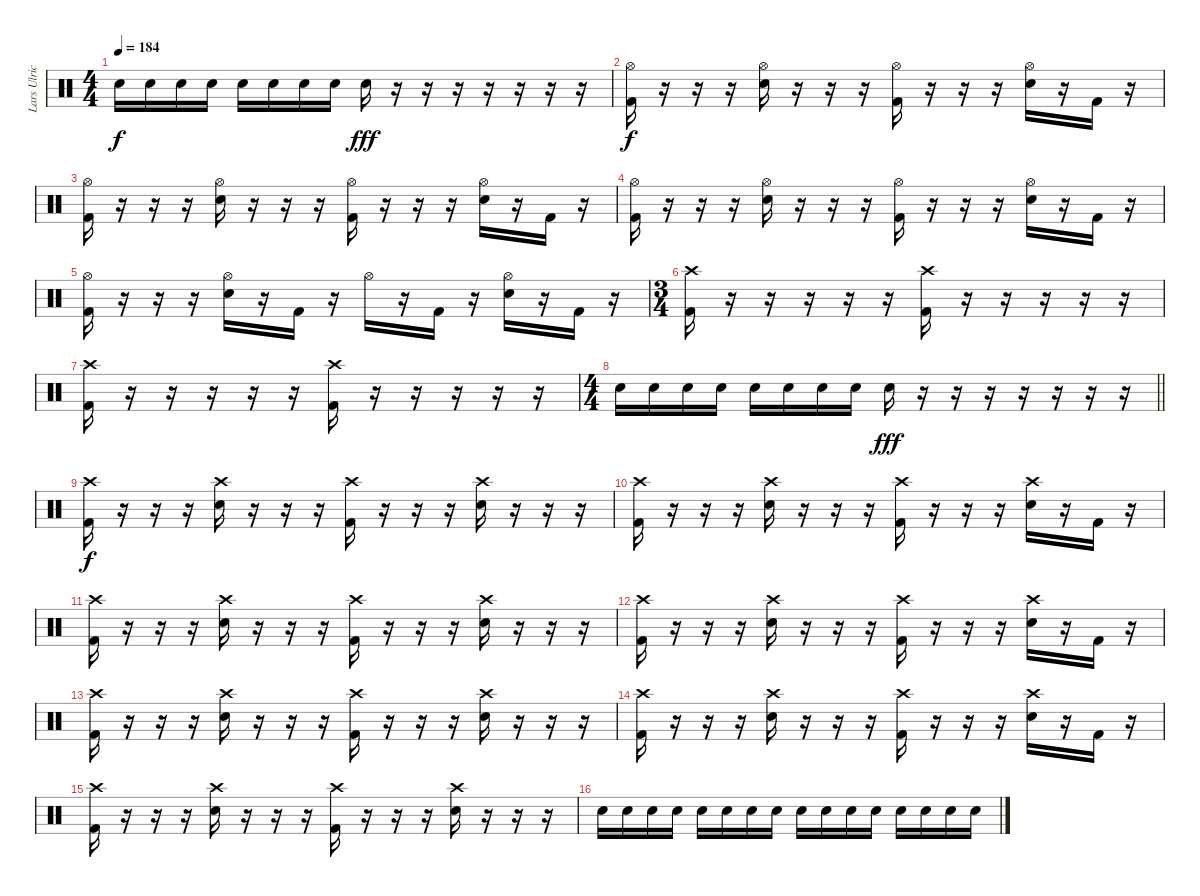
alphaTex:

\track ("Lars Ulrich" "Lars Ulric") {instrument percussion}
\staff {score}
\articulation defaults
\ts (4 4)
\tempo 184
\clef neutral
\ks c "Electric Snare (hit)".16{dy f} "Electric Snare (hit)".16 "Electric Snare (hit)".16 "Electric Snare (hit)".16 "Electric Snare (hit)".16 "Electric Snare (hit)".16 "Electric Snare (hit)".16 "Electric Snare (hit)".16 "Electric Snare (hit)".16{dy fff}
r.16 r.16 r.16 r.16 r.16 r.16 r.16 |
("Hi-Hat (open)" "Kick (hit) 2").16{dy f} r.16 r.16 r.16 ("Electric Snare (hit)" "Hi-Hat (open)").16 r.16 r.16 r.16 ("Hi-Hat (open)" "Kick (hit) 2").16 r.16 r.16 r.16 ("Electric Snare (hit)" "Hi-Hat (open)").16 r.16 "Kick (hit) 2".16 r.16 |
("Hi-Hat (open)" "Kick (hit) 2").16 r.16 r.16 r.16 ("Electric Snare (hit)" "Hi-Hat (open)").16 r.16 r.16 r.16 ("Hi-Hat (open)" "Kick (hit) 2").16 r.16 r.16 r.16 ("Electric Snare (hit)" "Hi-Hat (open)").16 r.16 "Kick (hit) 2".16 r.16 |
("Hi-Hat (open)" "Kick (hit) 2").16 r.16 r.16 r.16 ("Electric Snare (hit)" "Hi-Hat (open)").16 r.16 r.16 r.16 ("Hi-Hat (open)" "Kick (hit) 2").16 r.16 r.16 r.16 ("Electric Snare (hit)" "Hi-Hat (open)").16 r.16 "Kick (hit) 2".16 r.16 |
("Hi-Hat (open)" "Kick (hit) 2").16 r.16 r.16 r.16 ("Electric Snare (hit)" "Hi-Hat (open)").16 r.16 "Kick (hit) 2".16 r.16 "Hi-Hat (open)".16 r.16 "Kick (hit) 2".16 r.16 ("Electric Snare (hit)" "Hi-Hat (open)").16 r.16 "Kick (hit) 2".16 r.16 |
\ts (3 4)
("Crash high (hit)" "Kick (hit) 2").16 r.16 r.16 r.16 r.16 r.16 ("Crash high (hit)" "Kick (hit) 2").16 r.16 r.16 r.16 r.16 r.16 |
("Crash high (hit)" "Kick (hit) 2").16 r.16 r.16 r.16 r.16 r.16 ("Crash high (hit)" "Kick (hit) 2").16 r.16 r.16 r.16 r.16 r.16 |
\ts (4 4)
\barLineRight lightlight "Electric Snare (hit)".16 "Electric Snare (hit)".16 "Electric Snare (hit)".16 "Electric Snare (hit)".16 "Electric Snare (hit)".16 "Electric Snare (hit)".16 "Electric Snare (hit)".16 "Electric Snare (hit)".16 "Electric Snare (hit)".16{dy fff}
r.16 r.16 r.16 r.16 r.16 r.16 r.16 |
("Crash high (hit)" "Kick (hit) 2").16{dy f} r.16 r.16 r.16 ("Crash high (hit)" "Electric Snare (hit)").16 r.16 r.16 r.16 ("Crash high (hit)" "Kick (hit) 2").16 r.16 r.16 r.16 ("Crash high (hit)" "Electric Snare (hit)").16 r.16 r.16 r.16 |
("Crash high (hit)" "Kick (hit) 2").16 r.16 r.16 r.16 ("Crash high (hit)" "Electric Snare (hit)").16 r.16 r.16 r.16 ("Crash high (hit)" "Kick (hit) 2").16 r.16 r.16 r.16 ("Crash high (hit)" "Electric Snare (hit)").16 r.16 "Kick (hit) 2".16 r.16 |
("Crash high (hit)" "Kick (hit) 2").16 r.16 r.16 r.16 ("Crash high (hit)" "Electric Snare (hit)").16 r.16 r.16 r.16 ("Crash high (hit)" "Kick (hit) 2").16 r.16 r.16 r.16 ("Crash high (hit)" "Electric Snare (hit)").16 r.16 r.16 r.16 |
("Crash high (hit)" "Kick (hit) 2").16 r.16 r.16 r.16 ("Crash high (hit)" "Electric Snare (hit)").16 r.16 r.16 r.16 ("Crash high (hit)" "Kick (hit) 2").16 r.16 r.16 r.16 ("Crash high (hit)" "Electric Snare (hit)").16 r.16 "Kick (hit) 2".16 r.16 |
("Crash high (hit)" "Kick (hit) 2").16 r.16 r.16 r.16 ("Crash high (hit)" "Electric Snare (hit)").16 r.16 r.16 r.16 ("Crash high (hit)" "Kick (hit) 2").16 r.16 r.16 r.16 ("Crash high (hit)" "Electric Snare (hit)").16 r.16 r.16 r.16 |
("Crash high (hit)" "Kick (hit) 2").16 r.16 r.16 r.16 ("Crash high (hit)" "Electric Snare (hit)").16 r.16 r.16 r.16 ("Crash high (hit)" "Kick (hit) 2").16 r.16 r.16 r.16 ("Crash high (hit)" "Electric Snare (hit)").16 r.16 "Kick (hit) 2".16 r.16 |
("Crash high (hit)" "Kick (hit) 2").16 r.16 r.16 r.16 ("Crash high (hit)" "Electric Snare (hit)").16 r.16 r.16 r.16 ("Crash high (hit)" "Kick (hit) 2").16 r.16 r.16 r.16 ("Crash high (hit)" "Electric Snare (hit)").16 r.16 r.16 r.16 |
"Electric Snare (hit)".16 "Electric Snare (hit)".16 "Electric Snare (hit)".16 "Electric Snare (hit)".16 "Electric Snare (hit)".16 "Electric Snare (hit)".16 "Electric Snare (hit)".16 "Electric Snare (hit)".16 "Electric Snare (hit)".16 "Electric Snare (hit)".16 "Electric Snare (hit)".16 "Electric Snare (hit)".16 "Electric Snare (hit)".16 "Electric Snare (hit)".16 "Electric Snare (hit)".16 "Electric Snare (hit)".16
